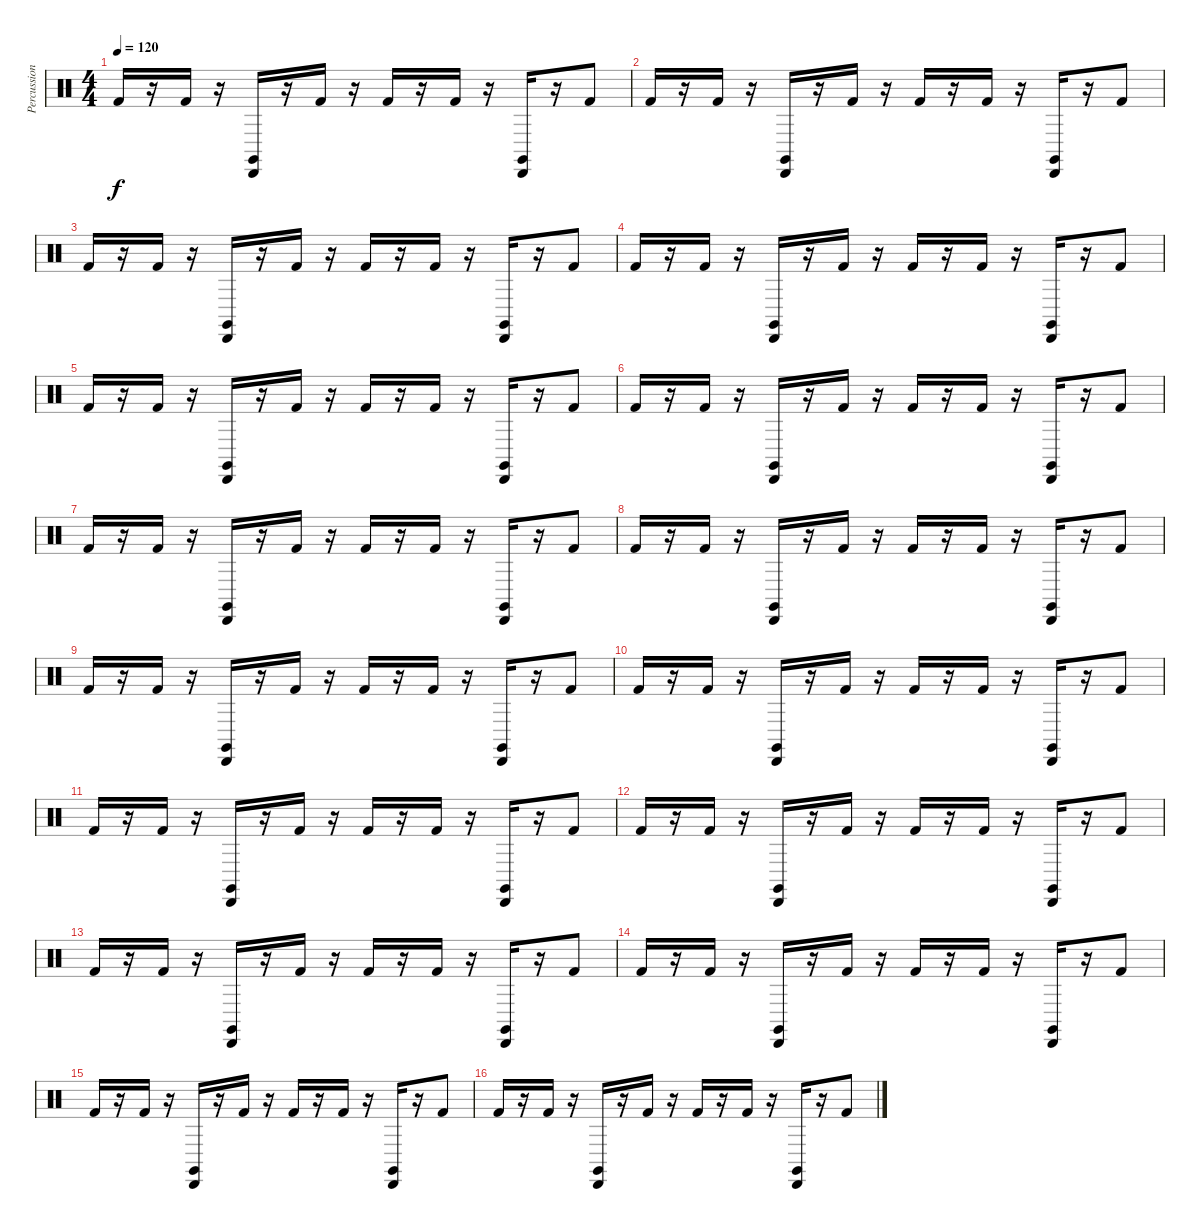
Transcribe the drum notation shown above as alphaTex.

\track ("Percussion" "Percussion") {instrument percussion}
\staff {score}
\articulation defaults
\ts (4 4)
\tempo 120
\clef neutral
\ks c "Kick (hit) 2".16{dy f}
r.16 "Kick (hit) 2".16 r.16 ("Cabasa (hit)" "Claves (hit)").16 r.16 "Kick (hit) 2".16 r.16 "Kick (hit) 2".16 r.16 "Kick (hit) 2".16 r.16 ("Cabasa (hit)" "Claves (hit)").16 r.16 "Kick (hit) 2".8 |
"Kick (hit) 2".16 r.16 "Kick (hit) 2".16 r.16 ("Cabasa (hit)" "Claves (hit)").16 r.16 "Kick (hit) 2".16 r.16 "Kick (hit) 2".16 r.16 "Kick (hit) 2".16 r.16 ("Cabasa (hit)" "Claves (hit)").16 r.16 "Kick (hit) 2".8 |
"Kick (hit) 2".16 r.16 "Kick (hit) 2".16 r.16 ("Cabasa (hit)" "Claves (hit)").16 r.16 "Kick (hit) 2".16 r.16 "Kick (hit) 2".16 r.16 "Kick (hit) 2".16 r.16 ("Cabasa (hit)" "Claves (hit)").16 r.16 "Kick (hit) 2".8 |
"Kick (hit) 2".16 r.16 "Kick (hit) 2".16 r.16 ("Cabasa (hit)" "Claves (hit)").16 r.16 "Kick (hit) 2".16 r.16 "Kick (hit) 2".16 r.16 "Kick (hit) 2".16 r.16 ("Cabasa (hit)" "Claves (hit)").16 r.16 "Kick (hit) 2".8 |
"Kick (hit) 2".16 r.16 "Kick (hit) 2".16 r.16 ("Cabasa (hit)" "Claves (hit)").16 r.16 "Kick (hit) 2".16 r.16 "Kick (hit) 2".16 r.16 "Kick (hit) 2".16 r.16 ("Cabasa (hit)" "Claves (hit)").16 r.16 "Kick (hit) 2".8 |
"Kick (hit) 2".16 r.16 "Kick (hit) 2".16 r.16 ("Cabasa (hit)" "Claves (hit)").16 r.16 "Kick (hit) 2".16 r.16 "Kick (hit) 2".16 r.16 "Kick (hit) 2".16 r.16 ("Cabasa (hit)" "Claves (hit)").16 r.16 "Kick (hit) 2".8 |
"Kick (hit) 2".16 r.16 "Kick (hit) 2".16 r.16 ("Cabasa (hit)" "Claves (hit)").16 r.16 "Kick (hit) 2".16 r.16 "Kick (hit) 2".16 r.16 "Kick (hit) 2".16 r.16 ("Cabasa (hit)" "Claves (hit)").16 r.16 "Kick (hit) 2".8 |
"Kick (hit) 2".16 r.16 "Kick (hit) 2".16 r.16 ("Cabasa (hit)" "Claves (hit)").16 r.16 "Kick (hit) 2".16 r.16 "Kick (hit) 2".16 r.16 "Kick (hit) 2".16 r.16 ("Cabasa (hit)" "Claves (hit)").16 r.16 "Kick (hit) 2".8 |
"Kick (hit) 2".16 r.16 "Kick (hit) 2".16 r.16 ("Cabasa (hit)" "Claves (hit)").16 r.16 "Kick (hit) 2".16 r.16 "Kick (hit) 2".16 r.16 "Kick (hit) 2".16 r.16 ("Cabasa (hit)" "Claves (hit)").16 r.16 "Kick (hit) 2".8 |
"Kick (hit) 2".16 r.16 "Kick (hit) 2".16 r.16 ("Cabasa (hit)" "Claves (hit)").16 r.16 "Kick (hit) 2".16 r.16 "Kick (hit) 2".16 r.16 "Kick (hit) 2".16 r.16 ("Cabasa (hit)" "Claves (hit)").16 r.16 "Kick (hit) 2".8 |
"Kick (hit) 2".16 r.16 "Kick (hit) 2".16 r.16 ("Cabasa (hit)" "Claves (hit)").16 r.16 "Kick (hit) 2".16 r.16 "Kick (hit) 2".16 r.16 "Kick (hit) 2".16 r.16 ("Cabasa (hit)" "Claves (hit)").16 r.16 "Kick (hit) 2".8 |
"Kick (hit) 2".16 r.16 "Kick (hit) 2".16 r.16 ("Cabasa (hit)" "Claves (hit)").16 r.16 "Kick (hit) 2".16 r.16 "Kick (hit) 2".16 r.16 "Kick (hit) 2".16 r.16 ("Cabasa (hit)" "Claves (hit)").16 r.16 "Kick (hit) 2".8 |
"Kick (hit) 2".16 r.16 "Kick (hit) 2".16 r.16 ("Cabasa (hit)" "Claves (hit)").16 r.16 "Kick (hit) 2".16 r.16 "Kick (hit) 2".16 r.16 "Kick (hit) 2".16 r.16 ("Cabasa (hit)" "Claves (hit)").16 r.16 "Kick (hit) 2".8 |
"Kick (hit) 2".16 r.16 "Kick (hit) 2".16 r.16 ("Cabasa (hit)" "Claves (hit)").16 r.16 "Kick (hit) 2".16 r.16 "Kick (hit) 2".16 r.16 "Kick (hit) 2".16 r.16 ("Cabasa (hit)" "Claves (hit)").16 r.16 "Kick (hit) 2".8 |
"Kick (hit) 2".16 r.16 "Kick (hit) 2".16 r.16 ("Cabasa (hit)" "Claves (hit)").16 r.16 "Kick (hit) 2".16 r.16 "Kick (hit) 2".16 r.16 "Kick (hit) 2".16 r.16 ("Cabasa (hit)" "Claves (hit)").16 r.16 "Kick (hit) 2".8 |
"Kick (hit) 2".16 r.16 "Kick (hit) 2".16 r.16 ("Cabasa (hit)" "Claves (hit)").16 r.16 "Kick (hit) 2".16 r.16 "Kick (hit) 2".16 r.16 "Kick (hit) 2".16 r.16 ("Cabasa (hit)" "Claves (hit)").16 r.16 "Kick (hit) 2".8
